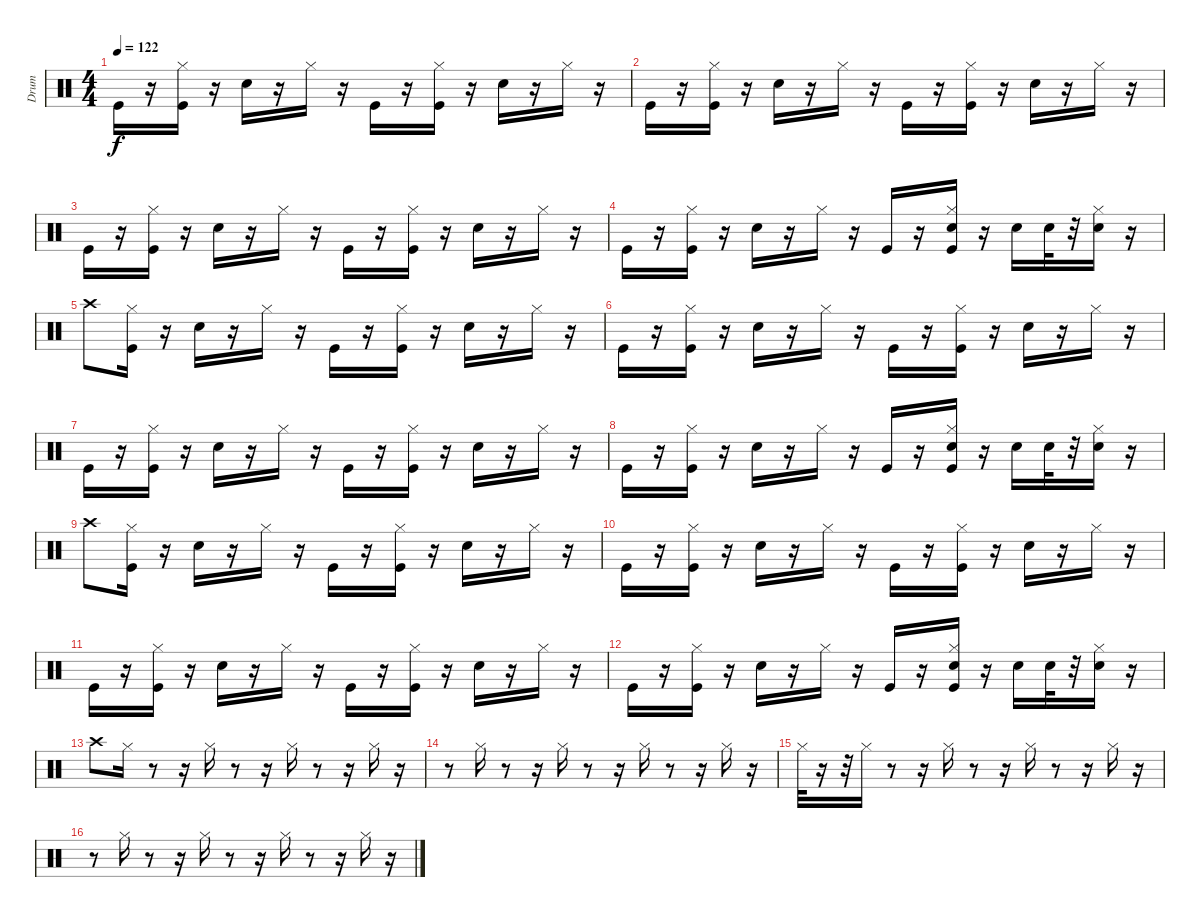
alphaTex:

\track ("Drum" "Drum") {instrument percussion}
\staff {score}
\articulation defaults
\ts (4 4)
\tempo 122
\clef neutral
\ks c "Kick (hit)".16{dy f}
r.16 ("Kick (hit)" "Hi-Hat (closed)").16 r.16 "Snare (hit) 2".16 r.16 "Hi-Hat (closed)".16 r.16 "Kick (hit)".16 r.16 ("Kick (hit)" "Hi-Hat (closed)").16 r.16 "Snare (hit) 2".16 r.16 "Hi-Hat (closed)".16 r.16 |
"Kick (hit)".16 r.16 ("Kick (hit)" "Hi-Hat (closed)").16 r.16 "Snare (hit) 2".16 r.16 "Hi-Hat (closed)".16 r.16 "Kick (hit)".16 r.16 ("Kick (hit)" "Hi-Hat (closed)").16 r.16 "Snare (hit) 2".16 r.16 "Hi-Hat (closed)".16 r.16 |
"Kick (hit)".16 r.16 ("Kick (hit)" "Hi-Hat (closed)").16 r.16 "Snare (hit) 2".16 r.16 "Hi-Hat (closed)".16 r.16 "Kick (hit)".16 r.16 ("Kick (hit)" "Hi-Hat (closed)").16 r.16 "Snare (hit) 2".16 r.16 "Hi-Hat (closed)".16 r.16 |
"Kick (hit)".16 r.16 ("Kick (hit)" "Hi-Hat (closed)").16 r.16 "Snare (hit) 2".16 r.16 "Hi-Hat (closed)".16 r.16 "Kick (hit)".16 r.16 ("Snare (hit) 2" "Kick (hit)" "Hi-Hat (closed)").16 r.16 "Snare (hit) 2".16 "Snare (hit) 2".32 r.32 ("Snare (hit) 2" "Hi-Hat (closed)").16 r.16 |
"Crash high (hit)".8 ("Kick (hit)" "Hi-Hat (closed)").16 r.16 "Snare (hit) 2".16 r.16 "Hi-Hat (closed)".16 r.16 "Kick (hit)".16 r.16 ("Kick (hit)" "Hi-Hat (closed)").16 r.16 "Snare (hit) 2".16 r.16 "Hi-Hat (closed)".16 r.16 |
"Kick (hit)".16 r.16 ("Kick (hit)" "Hi-Hat (closed)").16 r.16 "Snare (hit) 2".16 r.16 "Hi-Hat (closed)".16 r.16 "Kick (hit)".16 r.16 ("Kick (hit)" "Hi-Hat (closed)").16 r.16 "Snare (hit) 2".16 r.16 "Hi-Hat (closed)".16 r.16 |
"Kick (hit)".16 r.16 ("Kick (hit)" "Hi-Hat (closed)").16 r.16 "Snare (hit) 2".16 r.16 "Hi-Hat (closed)".16 r.16 "Kick (hit)".16 r.16 ("Kick (hit)" "Hi-Hat (closed)").16 r.16 "Snare (hit) 2".16 r.16 "Hi-Hat (closed)".16 r.16 |
"Kick (hit)".16 r.16 ("Kick (hit)" "Hi-Hat (closed)").16 r.16 "Snare (hit) 2".16 r.16 "Hi-Hat (closed)".16 r.16 "Kick (hit)".16 r.16 ("Snare (hit) 2" "Kick (hit)" "Hi-Hat (closed)").16 r.16 "Snare (hit) 2".16 "Snare (hit) 2".32 r.32 ("Snare (hit) 2" "Hi-Hat (closed)").16 r.16 |
"Crash high (hit)".8 ("Kick (hit)" "Hi-Hat (closed)").16 r.16 "Snare (hit) 2".16 r.16 "Hi-Hat (closed)".16 r.16 "Kick (hit)".16 r.16 ("Kick (hit)" "Hi-Hat (closed)").16 r.16 "Snare (hit) 2".16 r.16 "Hi-Hat (closed)".16 r.16 |
"Kick (hit)".16 r.16 ("Kick (hit)" "Hi-Hat (closed)").16 r.16 "Snare (hit) 2".16 r.16 "Hi-Hat (closed)".16 r.16 "Kick (hit)".16 r.16 ("Kick (hit)" "Hi-Hat (closed)").16 r.16 "Snare (hit) 2".16 r.16 "Hi-Hat (closed)".16 r.16 |
"Kick (hit)".16 r.16 ("Kick (hit)" "Hi-Hat (closed)").16 r.16 "Snare (hit) 2".16 r.16 "Hi-Hat (closed)".16 r.16 "Kick (hit)".16 r.16 ("Kick (hit)" "Hi-Hat (closed)").16 r.16 "Snare (hit) 2".16 r.16 "Hi-Hat (closed)".16 r.16 |
"Kick (hit)".16 r.16 ("Kick (hit)" "Hi-Hat (closed)").16 r.16 "Snare (hit) 2".16 r.16 "Hi-Hat (closed)".16 r.16 "Kick (hit)".16 r.16 ("Snare (hit) 2" "Kick (hit)" "Hi-Hat (closed)").16 r.16 "Snare (hit) 2".16 "Snare (hit) 2".32 r.32 ("Snare (hit) 2" "Hi-Hat (closed)").16 r.16 |
"Crash high (hit)".8 "Hi-Hat (closed)".16 r.8 r.16 "Hi-Hat (closed)".16 r.8 r.16 "Hi-Hat (closed)".16 r.8 r.16 "Hi-Hat (closed)".16 r.16 |
r.8 "Hi-Hat (closed)".16 r.8 r.16 "Hi-Hat (closed)".16 r.8 r.16 "Hi-Hat (closed)".16 r.8 r.16 "Hi-Hat (closed)".16 r.16 |
"Hi-Hat (closed)".32 r.16 r.32 "Hi-Hat (closed)".16 r.8 r.16 "Hi-Hat (closed)".16 r.8 r.16 "Hi-Hat (closed)".16 r.8 r.16 "Hi-Hat (closed)".16 r.16 |
r.8 "Hi-Hat (closed)".16 r.8 r.16 "Hi-Hat (closed)".16 r.8 r.16 "Hi-Hat (closed)".16 r.8 r.16 "Hi-Hat (closed)".16 r.16
